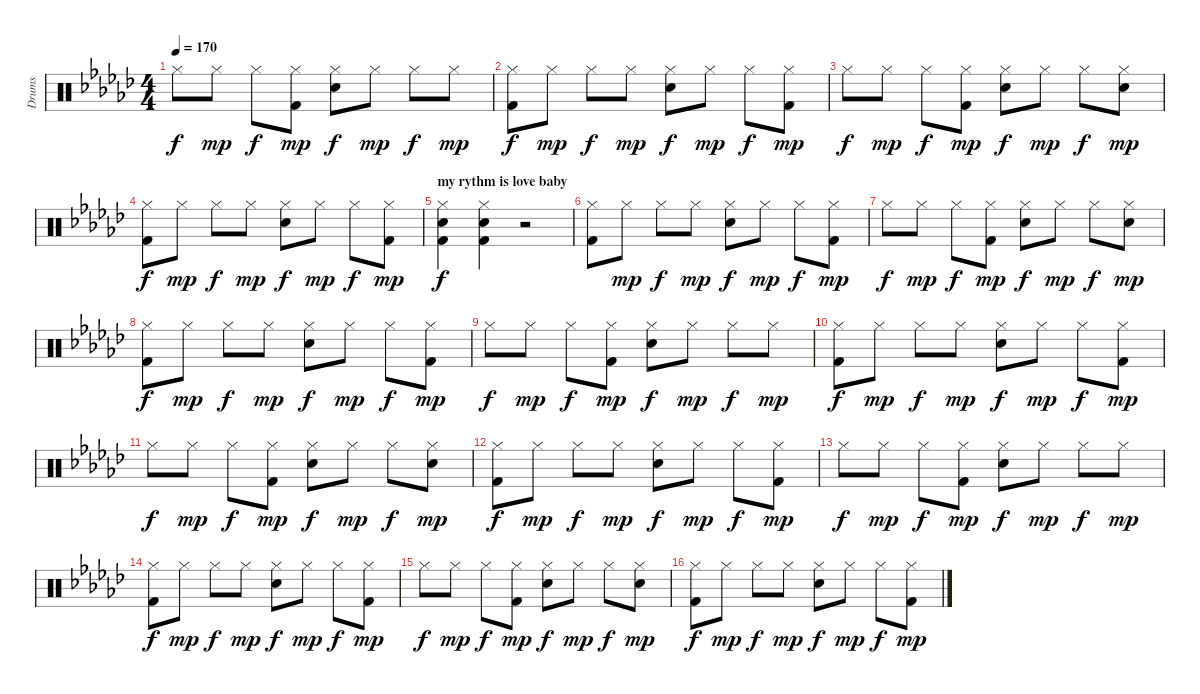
\track ("Drums" "Drums") {instrument percussion}
\staff {score}
\articulation defaults
\ts (4 4)
\tempo 170
\clef neutral
\ks ebminor "Hi-Hat (closed)".8{dy f} "Hi-Hat (closed)".8{dy mp} "Hi-Hat (closed)".8{dy f}
("Hi-Hat (closed)" "Kick (hit) 2").8{dy mp} ("Hi-Hat (closed)" "Snare (hit) 2").8{dy f} "Hi-Hat (closed)".8{dy mp} "Hi-Hat (closed)".8{dy f} "Hi-Hat (closed)".8{dy mp} |
("Hi-Hat (closed)" "Kick (hit) 2").8{dy f} "Hi-Hat (closed)".8{dy mp} "Hi-Hat (closed)".8{dy f} "Hi-Hat (closed)".8{dy mp} ("Hi-Hat (closed)" "Snare (hit) 2").8{dy f} "Hi-Hat (closed)".8{dy mp} "Hi-Hat (closed)".8{dy f} ("Hi-Hat (closed)" "Kick (hit) 2").8{dy mp} |
"Hi-Hat (closed)".8{dy f} "Hi-Hat (closed)".8{dy mp} "Hi-Hat (closed)".8{dy f} ("Hi-Hat (closed)" "Kick (hit) 2").8{dy mp} ("Hi-Hat (closed)" "Snare (hit) 2").8{dy f} "Hi-Hat (closed)".8{dy mp} "Hi-Hat (closed)".8{dy f} ("Hi-Hat (closed)" "Snare (hit) 2").8{dy mp} |
("Hi-Hat (closed)" "Kick (hit) 2").8{dy f} "Hi-Hat (closed)".8{dy mp} "Hi-Hat (closed)".8{dy f} "Hi-Hat (closed)".8{dy mp} ("Hi-Hat (closed)" "Snare (hit) 2").8{dy f} "Hi-Hat (closed)".8{dy mp} "Hi-Hat (closed)".8{dy f} ("Hi-Hat (closed)" "Kick (hit) 2").8{dy mp} |
\section ("" "my rythm is love baby")
("Hi-Hat (closed)" "Electric Snare (hit)" "Kick (hit) 2").4{dy f} ("Hi-Hat (closed)" "Electric Snare (hit)" "Kick (hit) 2").4 r.2 |
("Hi-Hat (closed)" "Kick (hit) 2").8 "Hi-Hat (closed)".8{dy mp} "Hi-Hat (closed)".8{dy f} "Hi-Hat (closed)".8{dy mp} ("Hi-Hat (closed)" "Snare (hit) 2").8{dy f} "Hi-Hat (closed)".8{dy mp} "Hi-Hat (closed)".8{dy f} ("Hi-Hat (closed)" "Kick (hit) 2").8{dy mp} |
"Hi-Hat (closed)".8{dy f} "Hi-Hat (closed)".8{dy mp} "Hi-Hat (closed)".8{dy f} ("Hi-Hat (closed)" "Kick (hit) 2").8{dy mp} ("Hi-Hat (closed)" "Snare (hit) 2").8{dy f} "Hi-Hat (closed)".8{dy mp} "Hi-Hat (closed)".8{dy f} ("Hi-Hat (closed)" "Snare (hit) 2").8{dy mp} |
("Hi-Hat (closed)" "Kick (hit) 2").8{dy f} "Hi-Hat (closed)".8{dy mp} "Hi-Hat (closed)".8{dy f} "Hi-Hat (closed)".8{dy mp} ("Hi-Hat (closed)" "Snare (hit) 2").8{dy f} "Hi-Hat (closed)".8{dy mp} "Hi-Hat (closed)".8{dy f} ("Hi-Hat (closed)" "Kick (hit) 2").8{dy mp} |
"Hi-Hat (closed)".8{dy f} "Hi-Hat (closed)".8{dy mp} "Hi-Hat (closed)".8{dy f} ("Hi-Hat (closed)" "Kick (hit) 2").8{dy mp} ("Hi-Hat (closed)" "Snare (hit) 2").8{dy f} "Hi-Hat (closed)".8{dy mp} "Hi-Hat (closed)".8{dy f} "Hi-Hat (closed)".8{dy mp} |
("Hi-Hat (closed)" "Kick (hit) 2").8{dy f} "Hi-Hat (closed)".8{dy mp} "Hi-Hat (closed)".8{dy f} "Hi-Hat (closed)".8{dy mp} ("Hi-Hat (closed)" "Snare (hit) 2").8{dy f} "Hi-Hat (closed)".8{dy mp} "Hi-Hat (closed)".8{dy f} ("Hi-Hat (closed)" "Kick (hit) 2").8{dy mp} |
"Hi-Hat (closed)".8{dy f} "Hi-Hat (closed)".8{dy mp} "Hi-Hat (closed)".8{dy f} ("Hi-Hat (closed)" "Kick (hit) 2").8{dy mp} ("Hi-Hat (closed)" "Snare (hit) 2").8{dy f} "Hi-Hat (closed)".8{dy mp} "Hi-Hat (closed)".8{dy f} ("Hi-Hat (closed)" "Snare (hit) 2").8{dy mp} |
("Hi-Hat (closed)" "Kick (hit) 2").8{dy f} "Hi-Hat (closed)".8{dy mp} "Hi-Hat (closed)".8{dy f} "Hi-Hat (closed)".8{dy mp} ("Hi-Hat (closed)" "Snare (hit) 2").8{dy f} "Hi-Hat (closed)".8{dy mp} "Hi-Hat (closed)".8{dy f} ("Hi-Hat (closed)" "Kick (hit) 2").8{dy mp} |
"Hi-Hat (closed)".8{dy f} "Hi-Hat (closed)".8{dy mp} "Hi-Hat (closed)".8{dy f} ("Hi-Hat (closed)" "Kick (hit) 2").8{dy mp} ("Hi-Hat (closed)" "Snare (hit) 2").8{dy f} "Hi-Hat (closed)".8{dy mp} "Hi-Hat (closed)".8{dy f} "Hi-Hat (closed)".8{dy mp} |
("Hi-Hat (closed)" "Kick (hit) 2").8{dy f} "Hi-Hat (closed)".8{dy mp} "Hi-Hat (closed)".8{dy f} "Hi-Hat (closed)".8{dy mp} ("Hi-Hat (closed)" "Snare (hit) 2").8{dy f} "Hi-Hat (closed)".8{dy mp} "Hi-Hat (closed)".8{dy f} ("Hi-Hat (closed)" "Kick (hit) 2").8{dy mp} |
"Hi-Hat (closed)".8{dy f} "Hi-Hat (closed)".8{dy mp} "Hi-Hat (closed)".8{dy f} ("Hi-Hat (closed)" "Kick (hit) 2").8{dy mp} ("Hi-Hat (closed)" "Snare (hit) 2").8{dy f} "Hi-Hat (closed)".8{dy mp} "Hi-Hat (closed)".8{dy f} ("Hi-Hat (closed)" "Snare (hit) 2").8{dy mp} |
("Hi-Hat (closed)" "Kick (hit) 2").8{dy f} "Hi-Hat (closed)".8{dy mp} "Hi-Hat (closed)".8{dy f} "Hi-Hat (closed)".8{dy mp} ("Hi-Hat (closed)" "Snare (hit) 2").8{dy f} "Hi-Hat (closed)".8{dy mp} "Hi-Hat (closed)".8{dy f} ("Hi-Hat (closed)" "Kick (hit) 2").8{dy mp}
